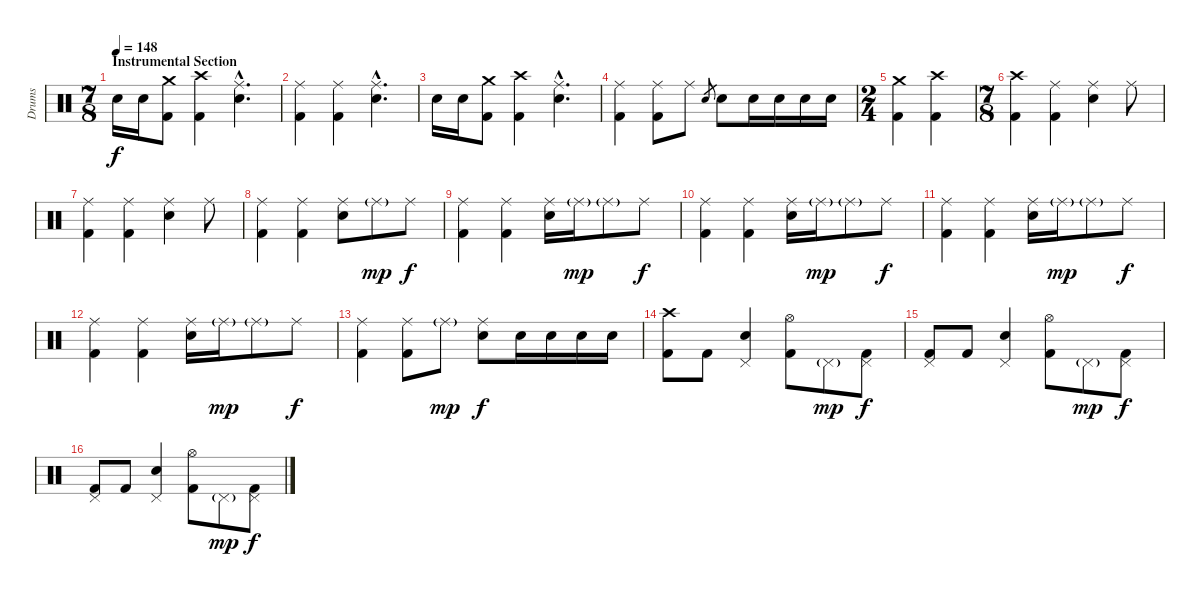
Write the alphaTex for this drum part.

\track ("Drums" "Drums") {instrument percussion}
\staff {score}
\articulation defaults
\ts (7 8)
\section ("" "Instrumental Section")
\tempo 148
\clef neutral
\ks c "Snare (hit) 2".16{dy f} "Snare (hit) 2".16
("Crash medium (hit)" "Kick (hit) 2").8 ("Crash high (hit)" "Kick (hit) 2").4 ("Ride (middle)"{hac} "Snare (hit) 2"{hac}).4{d} |
("Ride (middle)" "Kick (hit) 2").4 ("Ride (middle)" "Kick (hit) 2").4 ("Ride (middle)"{hac} "Snare (hit) 2"{hac}).4{d} |
"Snare (hit) 2".16 "Snare (hit) 2".16 ("Crash medium (hit)" "Kick (hit) 2").8 ("Crash high (hit)" "Kick (hit) 2").4 ("Ride (middle)"{hac} "Snare (hit) 2"{hac}).4{d} |
("Ride (middle)" "Kick (hit) 2").4 ("Ride (middle)" "Kick (hit) 2").8 "Ride (middle)".8 "Snare (hit) 2".8{gr} "Snare (hit) 2".8 "Snare (hit) 2".16 "Snare (hit) 2".16 "Snare (hit) 2".16 "Snare (hit) 2".16 |
\ts (2 4)
("Crash medium (hit)" "Kick (hit) 2").4 ("Crash high (hit)" "Kick (hit) 2").4 |
\ts (7 8)
("Crash high (hit)" "Kick (hit) 2").4 ("Ride (middle)" "Kick (hit) 2").4 ("Ride (middle)" "Snare (hit) 2").4 "Ride (middle)".8 |
("Ride (middle)" "Kick (hit) 2").4 ("Ride (middle)" "Kick (hit) 2").4 ("Ride (middle)" "Snare (hit) 2").4 "Ride (middle)".8 |
("Ride (middle)" "Kick (hit) 2").4 ("Ride (middle)" "Kick (hit) 2").4 ("Ride (middle)" "Snare (hit) 2").8 "Ride (middle)"{g}.8{dy mp} "Ride (middle)".8{dy f} |
("Ride (middle)" "Kick (hit) 2").4 ("Ride (middle)" "Kick (hit) 2").4 ("Ride (middle)" "Snare (hit) 2").16 "Ride (middle)"{g}.16{dy mp} "Ride (middle)"{g}.8 "Ride (middle)".8{dy f} |
("Ride (middle)" "Kick (hit) 2").4 ("Ride (middle)" "Kick (hit) 2").4 ("Ride (middle)" "Snare (hit) 2").16 "Ride (middle)"{g}.16{dy mp} "Ride (middle)"{g}.8 "Ride (middle)".8{dy f} |
("Ride (middle)" "Kick (hit) 2").4 ("Ride (middle)" "Kick (hit) 2").4 ("Ride (middle)" "Snare (hit) 2").16 "Ride (middle)"{g}.16{dy mp} "Ride (middle)"{g}.8 "Ride (middle)".8{dy f} |
("Ride (middle)" "Kick (hit) 2").4 ("Ride (middle)" "Kick (hit) 2").4 ("Ride (middle)" "Snare (hit) 2").16 "Ride (middle)"{g}.16{dy mp} "Ride (middle)"{g}.8 "Ride (middle)".8{dy f} |
("Ride (middle)" "Kick (hit) 2").4 ("Ride (middle)" "Kick (hit) 2").8 "Ride (middle)"{g}.8{dy mp} ("Ride (middle)" "Snare (hit) 2").8{dy f} "Snare (hit) 2".16 "Snare (hit) 2".16 "Snare (hit) 2".16 "Snare (hit) 2".16 |
("Crash high (hit)" "Kick (hit) 2").8 "Kick (hit) 2".8 ("Pedal Hi-Hat (hit)" "Snare (hit) 2").4 ("Hi-Hat (open)" "Kick (hit) 2").8 "Pedal Hi-Hat (hit)"{g}.8{dy mp} ("Pedal Hi-Hat (hit)" "Kick (hit) 2").8{dy f} |
("Pedal Hi-Hat (hit)" "Kick (hit) 2").8 "Kick (hit) 2".8 ("Pedal Hi-Hat (hit)" "Snare (hit) 2").4 ("Hi-Hat (open)" "Kick (hit) 2").8 "Pedal Hi-Hat (hit)"{g}.8{dy mp} ("Pedal Hi-Hat (hit)" "Kick (hit) 2").8{dy f} |
("Pedal Hi-Hat (hit)" "Kick (hit) 2").8 "Kick (hit) 2".8 ("Pedal Hi-Hat (hit)" "Snare (hit) 2").4 ("Hi-Hat (open)" "Kick (hit) 2").8 "Pedal Hi-Hat (hit)"{g}.8{dy mp} ("Pedal Hi-Hat (hit)" "Kick (hit) 2").8{dy f}
